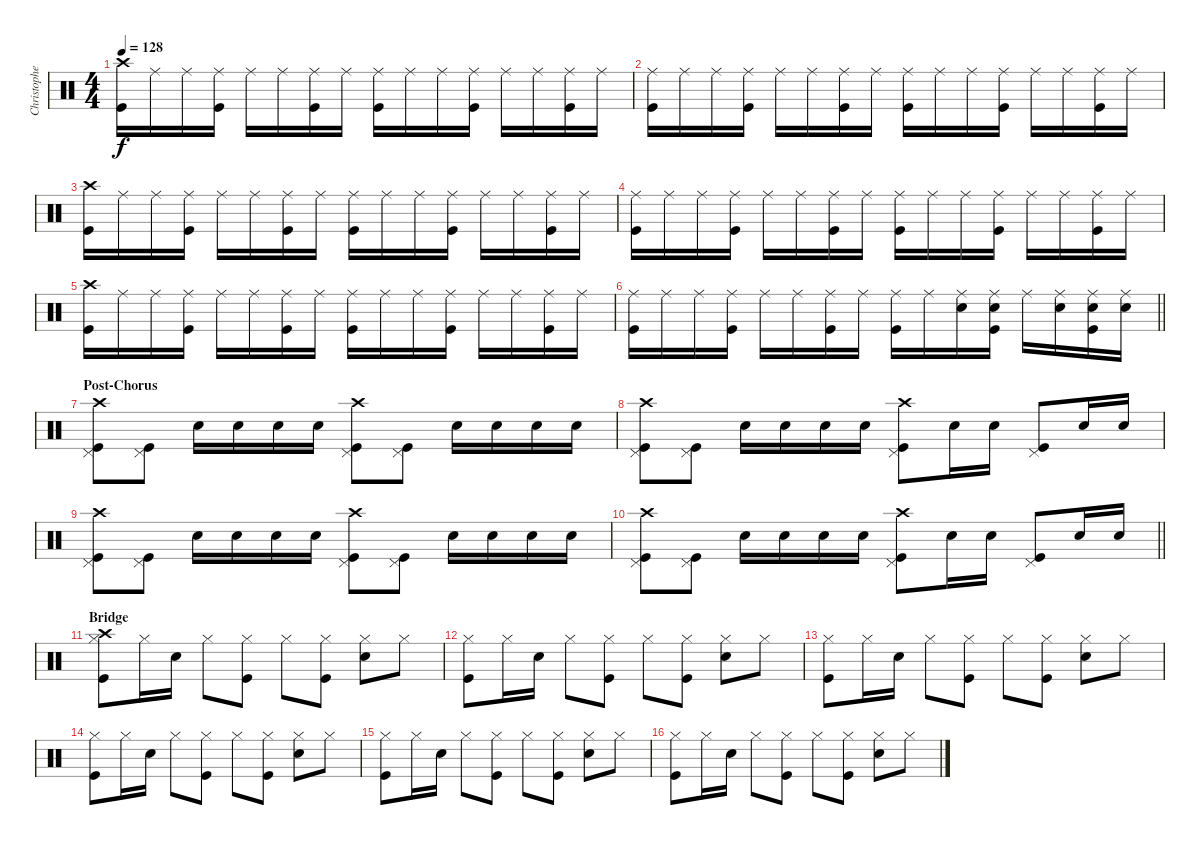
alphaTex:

\track ("Christopher - Drums" "Christophe") {instrument percussion}
\staff {score}
\articulation defaults
\ts (4 4)
\tempo 128
\clef neutral
\ks c
("Crash high (hit)" "Kick (hit)").16{dy f} "Ride (middle)".16 "Ride (middle)".16 ("Ride (middle)" "Kick (hit)").16 "Ride (middle)".16 "Ride (middle)".16 ("Ride (middle)" "Kick (hit)").16 "Ride (middle)".16 ("Ride (middle)" "Kick (hit)").16 "Ride (middle)".16 "Ride (middle)".16 ("Ride (middle)" "Kick (hit)").16 "Ride (middle)".16 "Ride (middle)".16 ("Ride (middle)" "Kick (hit)").16 "Ride (middle)".16 |
("Ride (middle)" "Kick (hit)").16 "Ride (middle)".16 "Ride (middle)".16 ("Ride (middle)" "Kick (hit)").16 "Ride (middle)".16 "Ride (middle)".16 ("Ride (middle)" "Kick (hit)").16 "Ride (middle)".16 ("Ride (middle)" "Kick (hit)").16 "Ride (middle)".16 "Ride (middle)".16 ("Ride (middle)" "Kick (hit)").16 "Ride (middle)".16 "Ride (middle)".16 ("Ride (middle)" "Kick (hit)").16 "Ride (middle)".16 |
("Crash high (hit)" "Kick (hit)").16 "Ride (middle)".16 "Ride (middle)".16 ("Ride (middle)" "Kick (hit)").16 "Ride (middle)".16 "Ride (middle)".16 ("Ride (middle)" "Kick (hit)").16 "Ride (middle)".16 ("Ride (middle)" "Kick (hit)").16 "Ride (middle)".16 "Ride (middle)".16 ("Ride (middle)" "Kick (hit)").16 "Ride (middle)".16 "Ride (middle)".16 ("Ride (middle)" "Kick (hit)").16 "Ride (middle)".16 |
("Ride (middle)" "Kick (hit)").16 "Ride (middle)".16 "Ride (middle)".16 ("Ride (middle)" "Kick (hit)").16 "Ride (middle)".16 "Ride (middle)".16 ("Ride (middle)" "Kick (hit)").16 "Ride (middle)".16 ("Ride (middle)" "Kick (hit)").16 "Ride (middle)".16 "Ride (middle)".16 ("Ride (middle)" "Kick (hit)").16 "Ride (middle)".16 "Ride (middle)".16 ("Ride (middle)" "Kick (hit)").16 "Ride (middle)".16 |
("Crash high (hit)" "Kick (hit)").16 "Ride (middle)".16 "Ride (middle)".16 ("Ride (middle)" "Kick (hit)").16 "Ride (middle)".16 "Ride (middle)".16 ("Ride (middle)" "Kick (hit)").16 "Ride (middle)".16 ("Ride (middle)" "Kick (hit)").16 "Ride (middle)".16 "Ride (middle)".16 ("Ride (middle)" "Kick (hit)").16 "Ride (middle)".16 "Ride (middle)".16 ("Ride (middle)" "Kick (hit)").16 "Ride (middle)".16 |
\barLineRight lightlight
("Ride (middle)" "Kick (hit)").16 "Ride (middle)".16 "Ride (middle)".16 ("Ride (middle)" "Kick (hit)").16 "Ride (middle)".16 "Ride (middle)".16 ("Ride (middle)" "Kick (hit)").16 "Ride (middle)".16 ("Ride (middle)" "Kick (hit)").16 "Ride (middle)".16 ("Ride (middle)" "Snare (hit) 2").16 ("Ride (middle)" "Snare (hit) 2" "Kick (hit)").16 "Ride (middle)".16 ("Ride (middle)" "Snare (hit) 2").16 ("Ride (middle)" "Snare (hit) 2" "Kick (hit)").16 ("Ride (middle)" "Snare (hit) 2").16 |
\section ("" "Post-Chorus")
("Crash high (hit)" "Pedal Hi-Hat (hit)" "Kick (hit)").8 ("Pedal Hi-Hat (hit)" "Kick (hit)").8 "Snare (hit) 2".16 "Snare (hit) 2".16 "Snare (hit) 2".16 "Snare (hit) 2".16 ("Crash high (hit)" "Pedal Hi-Hat (hit)" "Kick (hit)").8 ("Pedal Hi-Hat (hit)" "Kick (hit)").8 "Snare (hit) 2".16 "Snare (hit) 2".16 "Snare (hit) 2".16 "Snare (hit) 2".16 |
("Crash high (hit)" "Pedal Hi-Hat (hit)" "Kick (hit)").8 ("Pedal Hi-Hat (hit)" "Kick (hit)").8 "Snare (hit) 2".16 "Snare (hit) 2".16 "Snare (hit) 2".16 "Snare (hit) 2".16 ("Crash high (hit)" "Pedal Hi-Hat (hit)" "Kick (hit)").8 "Snare (hit) 2".16 "Snare (hit) 2".16 ("Pedal Hi-Hat (hit)" "Kick (hit)").8 "Snare (hit) 2".16 "Snare (hit) 2".16 |
("Crash high (hit)" "Pedal Hi-Hat (hit)" "Kick (hit)").8 ("Pedal Hi-Hat (hit)" "Kick (hit)").8 "Snare (hit) 2".16 "Snare (hit) 2".16 "Snare (hit) 2".16 "Snare (hit) 2".16 ("Crash high (hit)" "Pedal Hi-Hat (hit)" "Kick (hit)").8 ("Pedal Hi-Hat (hit)" "Kick (hit)").8 "Snare (hit) 2".16 "Snare (hit) 2".16 "Snare (hit) 2".16 "Snare (hit) 2".16 |
\barLineRight lightlight
("Crash high (hit)" "Pedal Hi-Hat (hit)" "Kick (hit)").8 ("Pedal Hi-Hat (hit)" "Kick (hit)").8 "Snare (hit) 2".16 "Snare (hit) 2".16 "Snare (hit) 2".16 "Snare (hit) 2".16 ("Crash high (hit)" "Pedal Hi-Hat (hit)" "Kick (hit)").8 "Snare (hit) 2".16 "Snare (hit) 2".16 ("Pedal Hi-Hat (hit)" "Kick (hit)").8 "Snare (hit) 2".16 "Snare (hit) 2".16 |
\section ("" "Bridge")
("Crash high (hit)" "Hi-Hat (closed)" "Kick (hit)").8 "Hi-Hat (closed)".16 "Snare (hit) 2".16 "Hi-Hat (closed)".8 ("Hi-Hat (closed)" "Kick (hit)").8 "Hi-Hat (closed)".8 ("Hi-Hat (closed)" "Kick (hit)").8 ("Hi-Hat (closed)" "Snare (hit) 2").8 "Hi-Hat (closed)".8 |
("Hi-Hat (closed)" "Kick (hit)").8 "Hi-Hat (closed)".16 "Snare (hit) 2".16 "Hi-Hat (closed)".8 ("Hi-Hat (closed)" "Kick (hit)").8 "Hi-Hat (closed)".8 ("Hi-Hat (closed)" "Kick (hit)").8 ("Hi-Hat (closed)" "Snare (hit) 2").8 "Hi-Hat (closed)".8 |
("Hi-Hat (closed)" "Kick (hit)").8 "Hi-Hat (closed)".16 "Snare (hit) 2".16 "Hi-Hat (closed)".8 ("Hi-Hat (closed)" "Kick (hit)").8 "Hi-Hat (closed)".8 ("Hi-Hat (closed)" "Kick (hit)").8 ("Hi-Hat (closed)" "Snare (hit) 2").8 "Hi-Hat (closed)".8 |
("Hi-Hat (closed)" "Kick (hit)").8 "Hi-Hat (closed)".16 "Snare (hit) 2".16 "Hi-Hat (closed)".8 ("Hi-Hat (closed)" "Kick (hit)").8 "Hi-Hat (closed)".8 ("Hi-Hat (closed)" "Kick (hit)").8 ("Hi-Hat (closed)" "Snare (hit) 2").8 "Hi-Hat (closed)".8 |
("Hi-Hat (closed)" "Kick (hit)").8 "Hi-Hat (closed)".16 "Snare (hit) 2".16 "Hi-Hat (closed)".8 ("Hi-Hat (closed)" "Kick (hit)").8 "Hi-Hat (closed)".8 ("Hi-Hat (closed)" "Kick (hit)").8 ("Hi-Hat (closed)" "Snare (hit) 2").8 "Hi-Hat (closed)".8 |
("Hi-Hat (closed)" "Kick (hit)").8 "Hi-Hat (closed)".16 "Snare (hit) 2".16 "Hi-Hat (closed)".8 ("Hi-Hat (closed)" "Kick (hit)").8 "Hi-Hat (closed)".8 ("Hi-Hat (closed)" "Kick (hit)").8 ("Hi-Hat (closed)" "Snare (hit) 2").8 "Hi-Hat (closed)".8
